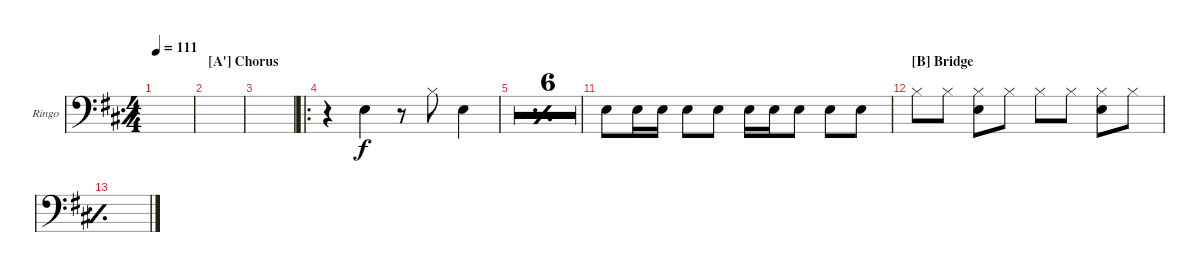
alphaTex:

\defaultSystemsLayout 4
\bracketExtendMode groupsimilarinstruments
\firstSystemTrackNameOrientation horizontal
\otherSystemsTrackNameOrientation horizontal
\track ("Ringo Starr - Arms" "Ringo") {multiBarRest instrument percussion}
\staff {score}
\articulation defaults
\ts (4 4)
\tempo 111
\clef f4
\simile simple
\ks d
|
\section ("A'" "Chorus")
|
|
\ro
r.4 "Snare (hit) 2".4 r.8 "Hi-Hat (closed)".8 "Snare (hit) 2".4 |
\simile simple
|
|
|
|
|
|
\simile none "Snare (hit) 2".8 "Snare (hit) 2".16 "Snare (hit) 2".16 "Snare (hit) 2".8 "Snare (hit) 2".8 "Snare (hit) 2".16 "Snare (hit) 2".16 "Snare (hit) 2".8 "Snare (hit) 2".8 "Snare (hit) 2".8
|
\section ("B" "Bridge")
"Hi-Hat (closed)".8 "Hi-Hat (closed)".8 ("Hi-Hat (closed)" "Snare (hit) 2").8 "Hi-Hat (closed)".8 "Hi-Hat (closed)".8 "Hi-Hat (closed)".8 ("Hi-Hat (closed)" "Snare (hit) 2").8 "Hi-Hat (closed)".8 |
\simile simple
